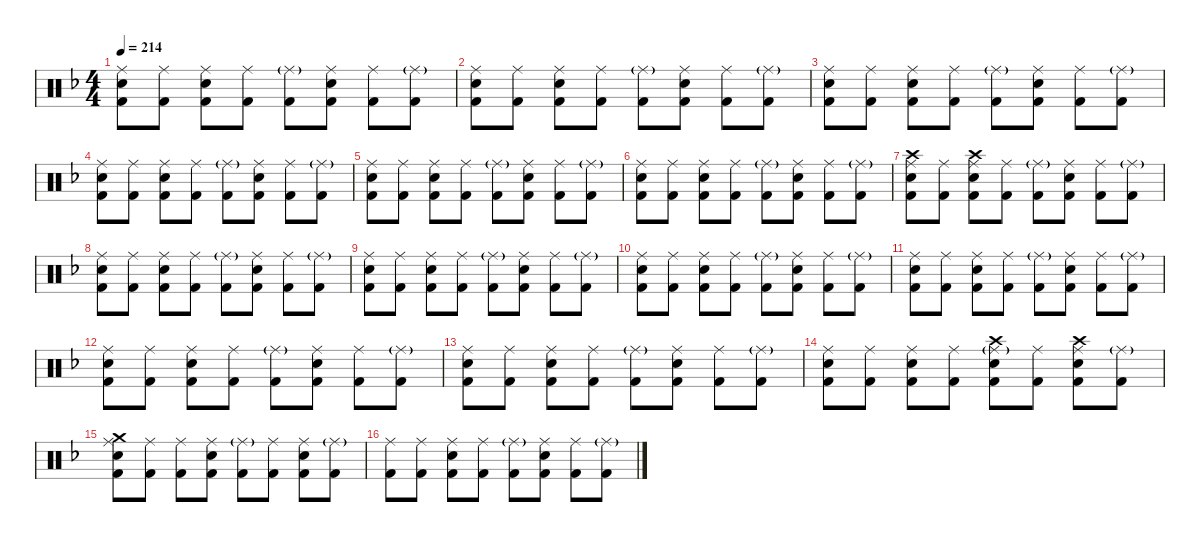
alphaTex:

\hideDynamics
\bracketExtendMode nobrackets
\singleTrackTrackNamePolicy hidden
\multiTrackTrackNamePolicy hidden
\firstSystemTrackNameMode fullname
\firstSystemTrackNameOrientation horizontal
\otherSystemsTrackNameOrientation horizontal
\track ("Drumkit" "Drums") {defaultSystemsLayout 4 instrument percussion}
\staff {score}
\articulation defaults
\ts (4 4)
\tempo 214
\clef neutral
\ks dminor
("Ride (middle)"{acc forcenatural} "Snare (hit) 2"{acc forcenatural} "Kick (hit) 2"{acc forcenatural}).8{dy mf beam Down} ("Ride (middle)"{acc forcenatural} "Kick (hit) 2"{acc forcenatural}).8{beam Down} ("Ride (middle)"{acc forcenatural} "Snare (hit) 2"{acc forcenatural} "Kick (hit) 2"{acc forcenatural}).8{beam Down} ("Ride (middle)"{acc forcenatural} "Kick (hit) 2"{acc forcenatural}).8{beam Down} ("Ride (middle)"{g acc forcenatural} "Kick (hit) 2"{acc forcenatural}).8{dy f beam Down} ("Ride (middle)"{acc forcenatural} "Snare (hit) 2"{acc forcenatural} "Kick (hit) 2"{acc forcenatural}).8{dy mf beam Down} ("Ride (middle)"{acc forcenatural} "Kick (hit) 2"{acc forcenatural}).8{beam Down} ("Ride (middle)"{g acc forcenatural} "Kick (hit) 2"{acc forcenatural}).8{dy f beam Down} |
("Ride (middle)"{acc forcenatural} "Snare (hit) 2"{acc forcenatural} "Kick (hit) 2"{acc forcenatural}).8{dy mf beam Down} ("Ride (middle)"{acc forcenatural} "Kick (hit) 2"{acc forcenatural}).8{beam Down} ("Ride (middle)"{acc forcenatural} "Snare (hit) 2"{acc forcenatural} "Kick (hit) 2"{acc forcenatural}).8{beam Down} ("Ride (middle)"{acc forcenatural} "Kick (hit) 2"{acc forcenatural}).8{beam Down} ("Ride (middle)"{g acc forcenatural} "Kick (hit) 2"{acc forcenatural}).8{dy f beam Down} ("Ride (middle)"{acc forcenatural} "Snare (hit) 2"{acc forcenatural} "Kick (hit) 2"{acc forcenatural}).8{dy mf beam Down} ("Ride (middle)"{acc forcenatural} "Kick (hit) 2"{acc forcenatural}).8{beam Down} ("Ride (middle)"{g acc forcenatural} "Kick (hit) 2"{acc forcenatural}).8{dy f beam Down} |
("Ride (middle)"{acc forcenatural} "Snare (hit) 2"{acc forcenatural} "Kick (hit) 2"{acc forcenatural}).8{dy mf beam Down} ("Ride (middle)"{acc forcenatural} "Kick (hit) 2"{acc forcenatural}).8{beam Down} ("Ride (middle)"{acc forcenatural} "Snare (hit) 2"{acc forcenatural} "Kick (hit) 2"{acc forcenatural}).8{beam Down} ("Ride (middle)"{acc forcenatural} "Kick (hit) 2"{acc forcenatural}).8{beam Down} ("Ride (middle)"{g acc forcenatural} "Kick (hit) 2"{acc forcenatural}).8{dy f beam Down} ("Ride (middle)"{acc forcenatural} "Snare (hit) 2"{acc forcenatural} "Kick (hit) 2"{acc forcenatural}).8{dy mf beam Down} ("Ride (middle)"{acc forcenatural} "Kick (hit) 2"{acc forcenatural}).8{beam Down} ("Ride (middle)"{g acc forcenatural} "Kick (hit) 2"{acc forcenatural}).8{dy f beam Down} |
("Ride (middle)"{acc forcenatural} "Snare (hit) 2"{acc forcenatural} "Kick (hit) 2"{acc forcenatural}).8{dy mf beam Down} ("Ride (middle)"{acc forcenatural} "Kick (hit) 2"{acc forcenatural}).8{beam Down} ("Ride (middle)"{acc forcenatural} "Snare (hit) 2"{acc forcenatural} "Kick (hit) 2"{acc forcenatural}).8{beam Down} ("Ride (middle)"{acc forcenatural} "Kick (hit) 2"{acc forcenatural}).8{beam Down} ("Ride (middle)"{g acc forcenatural} "Kick (hit) 2"{acc forcenatural}).8{dy f beam Down} ("Ride (middle)"{acc forcenatural} "Snare (hit) 2"{acc forcenatural} "Kick (hit) 2"{acc forcenatural}).8{dy mf beam Down} ("Ride (middle)"{acc forcenatural} "Kick (hit) 2"{acc forcenatural}).8{beam Down} ("Ride (middle)"{g acc forcenatural} "Kick (hit) 2"{acc forcenatural}).8{dy f beam Down} |
("Ride (middle)"{acc forcenatural} "Snare (hit) 2"{acc forcenatural} "Kick (hit) 2"{acc forcenatural}).8{dy mf beam Down} ("Ride (middle)"{acc forcenatural} "Kick (hit) 2"{acc forcenatural}).8{beam Down} ("Ride (middle)"{acc forcenatural} "Snare (hit) 2"{acc forcenatural} "Kick (hit) 2"{acc forcenatural}).8{beam Down} ("Ride (middle)"{acc forcenatural} "Kick (hit) 2"{acc forcenatural}).8{beam Down} ("Ride (middle)"{g acc forcenatural} "Kick (hit) 2"{acc forcenatural}).8{dy f beam Down} ("Ride (middle)"{acc forcenatural} "Snare (hit) 2"{acc forcenatural} "Kick (hit) 2"{acc forcenatural}).8{dy mf beam Down} ("Ride (middle)"{acc forcenatural} "Kick (hit) 2"{acc forcenatural}).8{beam Down} ("Ride (middle)"{g acc forcenatural} "Kick (hit) 2"{acc forcenatural}).8{dy f beam Down} |
("Ride (middle)"{acc forcenatural} "Snare (hit) 2"{acc forcenatural} "Kick (hit) 2"{acc forcenatural}).8{dy mf beam Down} ("Ride (middle)"{acc forcenatural} "Kick (hit) 2"{acc forcenatural}).8{beam Down} ("Ride (middle)"{acc forcenatural} "Snare (hit) 2"{acc forcenatural} "Kick (hit) 2"{acc forcenatural}).8{beam Down} ("Ride (middle)"{acc forcenatural} "Kick (hit) 2"{acc forcenatural}).8{beam Down} ("Ride (middle)"{g acc forcenatural} "Kick (hit) 2"{acc forcenatural}).8{dy f beam Down} ("Ride (middle)"{acc forcenatural} "Snare (hit) 2"{acc forcenatural} "Kick (hit) 2"{acc forcenatural}).8{dy mf beam Down} ("Ride (middle)"{acc forcenatural} "Kick (hit) 2"{acc forcenatural}).8{beam Down} ("Ride (middle)"{g acc forcenatural} "Kick (hit) 2"{acc forcenatural}).8{dy f beam Down} |
("Crash high (hit)"{acc forcenatural} "Ride (middle)"{acc forcenatural} "Snare (hit) 2"{acc forcenatural} "Kick (hit) 2"{acc forcenatural}).8{beam Down} ("Ride (middle)"{acc forcenatural} "Kick (hit) 2"{acc forcenatural}).8{dy mf beam Down} ("Crash high (hit)"{acc forcenatural} "Ride (middle)"{acc forcenatural} "Snare (hit) 2"{acc forcenatural} "Kick (hit) 2"{acc forcenatural}).8{dy f beam Down} ("Ride (middle)"{acc forcenatural} "Kick (hit) 2"{acc forcenatural}).8{dy mf beam Down} ("Ride (middle)"{g acc forcenatural} "Kick (hit) 2"{acc forcenatural}).8{dy f beam Down} ("Ride (middle)"{acc forcenatural} "Snare (hit) 2"{acc forcenatural} "Kick (hit) 2"{acc forcenatural}).8{dy mf beam Down} ("Ride (middle)"{acc forcenatural} "Kick (hit) 2"{acc forcenatural}).8{beam Down} ("Ride (middle)"{g acc forcenatural} "Kick (hit) 2"{acc forcenatural}).8{dy f beam Down} |
("Ride (middle)"{acc forcenatural} "Snare (hit) 2"{acc forcenatural} "Kick (hit) 2"{acc forcenatural}).8{dy mf beam Down} ("Ride (middle)"{acc forcenatural} "Kick (hit) 2"{acc forcenatural}).8{beam Down} ("Ride (middle)"{acc forcenatural} "Snare (hit) 2"{acc forcenatural} "Kick (hit) 2"{acc forcenatural}).8{beam Down} ("Ride (middle)"{acc forcenatural} "Kick (hit) 2"{acc forcenatural}).8{beam Down} ("Ride (middle)"{g acc forcenatural} "Kick (hit) 2"{acc forcenatural}).8{dy f beam Down} ("Ride (middle)"{acc forcenatural} "Snare (hit) 2"{acc forcenatural} "Kick (hit) 2"{acc forcenatural}).8{dy mf beam Down} ("Ride (middle)"{acc forcenatural} "Kick (hit) 2"{acc forcenatural}).8{beam Down} ("Ride (middle)"{g acc forcenatural} "Kick (hit) 2"{acc forcenatural}).8{dy f beam Down} |
("Ride (middle)"{acc forcenatural} "Snare (hit) 2"{acc forcenatural} "Kick (hit) 2"{acc forcenatural}).8{dy mf beam Down} ("Ride (middle)"{acc forcenatural} "Kick (hit) 2"{acc forcenatural}).8{beam Down} ("Ride (middle)"{acc forcenatural} "Snare (hit) 2"{acc forcenatural} "Kick (hit) 2"{acc forcenatural}).8{beam Down} ("Ride (middle)"{acc forcenatural} "Kick (hit) 2"{acc forcenatural}).8{beam Down} ("Ride (middle)"{g acc forcenatural} "Kick (hit) 2"{acc forcenatural}).8{dy f beam Down} ("Ride (middle)"{acc forcenatural} "Snare (hit) 2"{acc forcenatural} "Kick (hit) 2"{acc forcenatural}).8{dy mf beam Down} ("Ride (middle)"{acc forcenatural} "Kick (hit) 2"{acc forcenatural}).8{beam Down} ("Ride (middle)"{g acc forcenatural} "Kick (hit) 2"{acc forcenatural}).8{dy f beam Down} |
("Ride (middle)"{acc forcenatural} "Snare (hit) 2"{acc forcenatural} "Kick (hit) 2"{acc forcenatural}).8{dy mf beam Down} ("Ride (middle)"{acc forcenatural} "Kick (hit) 2"{acc forcenatural}).8{beam Down} ("Ride (middle)"{acc forcenatural} "Snare (hit) 2"{acc forcenatural} "Kick (hit) 2"{acc forcenatural}).8{beam Down} ("Ride (middle)"{acc forcenatural} "Kick (hit) 2"{acc forcenatural}).8{beam Down} ("Ride (middle)"{g acc forcenatural} "Kick (hit) 2"{acc forcenatural}).8{dy f beam Down} ("Ride (middle)"{acc forcenatural} "Snare (hit) 2"{acc forcenatural} "Kick (hit) 2"{acc forcenatural}).8{dy mf beam Down} ("Ride (middle)"{acc forcenatural} "Kick (hit) 2"{acc forcenatural}).8{beam Down} ("Ride (middle)"{g acc forcenatural} "Kick (hit) 2"{acc forcenatural}).8{dy f beam Down} |
("Ride (middle)"{acc forcenatural} "Snare (hit) 2"{acc forcenatural} "Kick (hit) 2"{acc forcenatural}).8{dy mf beam Down} ("Ride (middle)"{acc forcenatural} "Kick (hit) 2"{acc forcenatural}).8{beam Down} ("Ride (middle)"{acc forcenatural} "Snare (hit) 2"{acc forcenatural} "Kick (hit) 2"{acc forcenatural}).8{beam Down} ("Ride (middle)"{acc forcenatural} "Kick (hit) 2"{acc forcenatural}).8{beam Down} ("Ride (middle)"{g acc forcenatural} "Kick (hit) 2"{acc forcenatural}).8{dy f beam Down} ("Ride (middle)"{acc forcenatural} "Snare (hit) 2"{acc forcenatural} "Kick (hit) 2"{acc forcenatural}).8{dy mf beam Down} ("Ride (middle)"{acc forcenatural} "Kick (hit) 2"{acc forcenatural}).8{beam Down} ("Ride (middle)"{g acc forcenatural} "Kick (hit) 2"{acc forcenatural}).8{dy f beam Down} |
("Ride (middle)"{acc forcenatural} "Snare (hit) 2"{acc forcenatural} "Kick (hit) 2"{acc forcenatural}).8{dy mf beam Down} ("Ride (middle)"{acc forcenatural} "Kick (hit) 2"{acc forcenatural}).8{beam Down} ("Ride (middle)"{acc forcenatural} "Snare (hit) 2"{acc forcenatural} "Kick (hit) 2"{acc forcenatural}).8{beam Down} ("Ride (middle)"{acc forcenatural} "Kick (hit) 2"{acc forcenatural}).8{beam Down} ("Ride (middle)"{g acc forcenatural} "Kick (hit) 2"{acc forcenatural}).8{dy f beam Down} ("Ride (middle)"{acc forcenatural} "Snare (hit) 2"{acc forcenatural} "Kick (hit) 2"{acc forcenatural}).8{dy mf beam Down} ("Ride (middle)"{acc forcenatural} "Kick (hit) 2"{acc forcenatural}).8{beam Down} ("Ride (middle)"{g acc forcenatural} "Kick (hit) 2"{acc forcenatural}).8{dy f beam Down} |
("Ride (middle)"{acc forcenatural} "Snare (hit) 2"{acc forcenatural} "Kick (hit) 2"{acc forcenatural}).8{dy mf beam Down} ("Ride (middle)"{acc forcenatural} "Kick (hit) 2"{acc forcenatural}).8{beam Down} ("Ride (middle)"{acc forcenatural} "Snare (hit) 2"{acc forcenatural} "Kick (hit) 2"{acc forcenatural}).8{beam Down} ("Ride (middle)"{acc forcenatural} "Kick (hit) 2"{acc forcenatural}).8{beam Down} ("Ride (middle)"{g acc forcenatural} "Kick (hit) 2"{acc forcenatural}).8{dy f beam Down} ("Ride (middle)"{acc forcenatural} "Snare (hit) 2"{acc forcenatural} "Kick (hit) 2"{acc forcenatural}).8{dy mf beam Down} ("Ride (middle)"{acc forcenatural} "Kick (hit) 2"{acc forcenatural}).8{beam Down} ("Ride (middle)"{g acc forcenatural} "Kick (hit) 2"{acc forcenatural}).8{dy f beam Down} |
("Ride (middle)"{acc forcenatural} "Snare (hit) 2"{acc forcenatural} "Kick (hit) 2"{acc forcenatural}).8{dy mf beam Down} ("Ride (middle)"{acc forcenatural} "Kick (hit) 2"{acc forcenatural}).8{beam Down} ("Ride (middle)"{acc forcenatural} "Snare (hit) 2"{acc forcenatural} "Kick (hit) 2"{acc forcenatural}).8{beam Down} ("Ride (middle)"{acc forcenatural} "Kick (hit) 2"{acc forcenatural}).8{beam Down} ("Crash high (hit)"{acc forcenatural} "Ride (middle)"{g acc forcenatural} "Snare (hit) 2"{acc forcenatural} "Kick (hit) 2"{acc forcenatural}).8{dy f beam Down} ("Ride (middle)"{acc forcenatural} "Kick (hit) 2"{acc forcenatural}).8{dy mf beam Down} ("Crash high (hit)"{acc forcenatural} "Ride (middle)"{acc forcenatural} "Snare (hit) 2"{acc forcenatural} "Kick (hit) 2"{acc forcenatural}).8{dy f beam Down} ("Ride (middle)"{g acc forcenatural} "Kick (hit) 2"{acc forcenatural}).8{beam Down} |
("Crash medium (hit)"{acc forcenatural} "Ride (middle)"{acc forcenatural} "Snare (hit) 2"{acc forcenatural} "Kick (hit) 2"{acc forcenatural}).8{beam Down} ("Ride (middle)"{acc forcenatural} "Kick (hit) 2"{acc forcenatural}).8{dy mf beam Down} ("Ride (middle)"{acc forcenatural} "Kick (hit) 2"{acc forcenatural}).8{beam Down} ("Ride (middle)"{acc forcenatural} "Snare (hit) 2"{acc forcenatural} "Kick (hit) 2"{acc forcenatural}).8{beam Down} ("Ride (middle)"{g acc forcenatural} "Kick (hit) 2"{acc forcenatural}).8{dy f beam Down} ("Ride (middle)"{acc forcenatural} "Kick (hit) 2"{acc forcenatural}).8{dy mf beam Down} ("Ride (middle)"{acc forcenatural} "Snare (hit) 2"{acc forcenatural} "Kick (hit) 2"{acc forcenatural}).8{beam Down} ("Ride (middle)"{g acc forcenatural} "Kick (hit) 2"{acc forcenatural}).8{dy f beam Down} |
("Ride (middle)"{acc forcenatural} "Kick (hit) 2"{acc forcenatural}).8{dy mf beam Down} ("Ride (middle)"{acc forcenatural} "Kick (hit) 2"{acc forcenatural}).8{beam Down} ("Ride (middle)"{acc forcenatural} "Snare (hit) 2"{acc forcenatural} "Kick (hit) 2"{acc forcenatural}).8{beam Down} ("Ride (middle)"{acc forcenatural} "Kick (hit) 2"{acc forcenatural}).8{beam Down} ("Ride (middle)"{g acc forcenatural} "Kick (hit) 2"{acc forcenatural}).8{dy f beam Down} ("Ride (middle)"{acc forcenatural} "Snare (hit) 2"{acc forcenatural} "Kick (hit) 2"{acc forcenatural}).8{dy mf beam Down} ("Ride (middle)"{acc forcenatural} "Kick (hit) 2"{acc forcenatural}).8{beam Down} ("Ride (middle)"{g acc forcenatural} "Kick (hit) 2"{acc forcenatural}).8{dy f beam Down}
